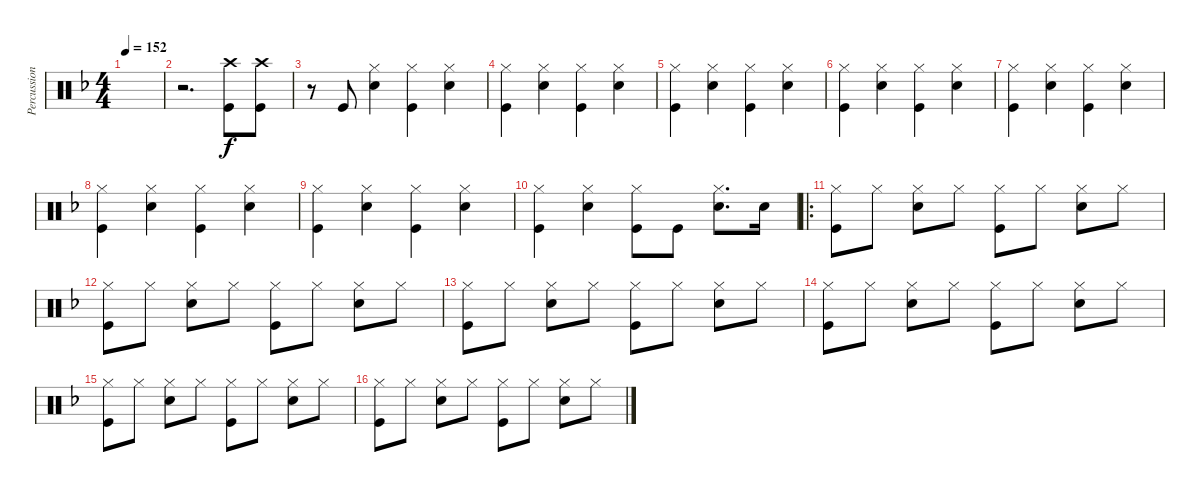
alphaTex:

\track ("Percussion" "Percussion") {instrument percussion}
\staff {score}
\articulation defaults
\ts (4 4)
\tempo 152
\clef neutral
\ks f
|
r.2{d} ("Crash high (hit)" "Kick (hit)").8 ("Crash high (hit)" "Kick (hit)").8 |
r.8 "Kick (hit)".8 ("Hi-Hat (closed)" "Electric Snare (hit)").4 ("Hi-Hat (closed)" "Kick (hit)").4 ("Hi-Hat (closed)" "Electric Snare (hit)").4 |
("Hi-Hat (closed)" "Kick (hit)").4 ("Hi-Hat (closed)" "Electric Snare (hit)").4 ("Hi-Hat (closed)" "Kick (hit)").4 ("Hi-Hat (closed)" "Electric Snare (hit)").4 |
("Hi-Hat (closed)" "Kick (hit)").4 ("Hi-Hat (closed)" "Electric Snare (hit)").4 ("Hi-Hat (closed)" "Kick (hit)").4 ("Hi-Hat (closed)" "Electric Snare (hit)").4 |
("Hi-Hat (closed)" "Kick (hit)").4 ("Hi-Hat (closed)" "Electric Snare (hit)").4 ("Hi-Hat (closed)" "Kick (hit)").4 ("Hi-Hat (closed)" "Electric Snare (hit)").4 |
("Hi-Hat (closed)" "Kick (hit)").4 ("Hi-Hat (closed)" "Electric Snare (hit)").4 ("Hi-Hat (closed)" "Kick (hit)").4 ("Hi-Hat (closed)" "Electric Snare (hit)").4 |
("Hi-Hat (closed)" "Kick (hit)").4 ("Hi-Hat (closed)" "Electric Snare (hit)").4 ("Hi-Hat (closed)" "Kick (hit)").4 ("Hi-Hat (closed)" "Electric Snare (hit)").4 |
("Hi-Hat (closed)" "Kick (hit)").4 ("Hi-Hat (closed)" "Electric Snare (hit)").4 ("Hi-Hat (closed)" "Kick (hit)").4 ("Hi-Hat (closed)" "Electric Snare (hit)").4 |
("Hi-Hat (closed)" "Kick (hit)").4 ("Hi-Hat (closed)" "Electric Snare (hit)").4 ("Hi-Hat (closed)" "Kick (hit)").8 "Kick (hit)".8 ("Hi-Hat (closed)" "Electric Snare (hit)").8{d dy f} "Electric Snare (hit)".16 |
\ro
("Hi-Hat (closed)" "Kick (hit)").8 "Hi-Hat (closed)".8 ("Hi-Hat (closed)" "Electric Snare (hit)").8 "Hi-Hat (closed)".8 ("Hi-Hat (closed)" "Kick (hit)").8 "Hi-Hat (closed)".8 ("Hi-Hat (closed)" "Electric Snare (hit)").8 "Hi-Hat (closed)".8 |
("Hi-Hat (closed)" "Kick (hit)").8 "Hi-Hat (closed)".8 ("Hi-Hat (closed)" "Electric Snare (hit)").8 "Hi-Hat (closed)".8 ("Hi-Hat (closed)" "Kick (hit)").8 "Hi-Hat (closed)".8 ("Hi-Hat (closed)" "Electric Snare (hit)").8 "Hi-Hat (closed)".8 |
("Hi-Hat (closed)" "Kick (hit)").8 "Hi-Hat (closed)".8 ("Hi-Hat (closed)" "Electric Snare (hit)").8 "Hi-Hat (closed)".8 ("Hi-Hat (closed)" "Kick (hit)").8 "Hi-Hat (closed)".8 ("Hi-Hat (closed)" "Electric Snare (hit)").8 "Hi-Hat (closed)".8 |
("Hi-Hat (closed)" "Kick (hit)").8 "Hi-Hat (closed)".8 ("Hi-Hat (closed)" "Electric Snare (hit)").8 "Hi-Hat (closed)".8 ("Hi-Hat (closed)" "Kick (hit)").8 "Hi-Hat (closed)".8 ("Hi-Hat (closed)" "Electric Snare (hit)").8 "Hi-Hat (closed)".8 |
("Hi-Hat (closed)" "Kick (hit)").8 "Hi-Hat (closed)".8 ("Hi-Hat (closed)" "Electric Snare (hit)").8 "Hi-Hat (closed)".8 ("Hi-Hat (closed)" "Kick (hit)").8 "Hi-Hat (closed)".8 ("Hi-Hat (closed)" "Electric Snare (hit)").8 "Hi-Hat (closed)".8 |
("Hi-Hat (closed)" "Kick (hit)").8 "Hi-Hat (closed)".8 ("Hi-Hat (closed)" "Electric Snare (hit)").8 "Hi-Hat (closed)".8 ("Hi-Hat (closed)" "Kick (hit)").8 "Hi-Hat (closed)".8 ("Hi-Hat (closed)" "Electric Snare (hit)").8 "Hi-Hat (closed)".8
